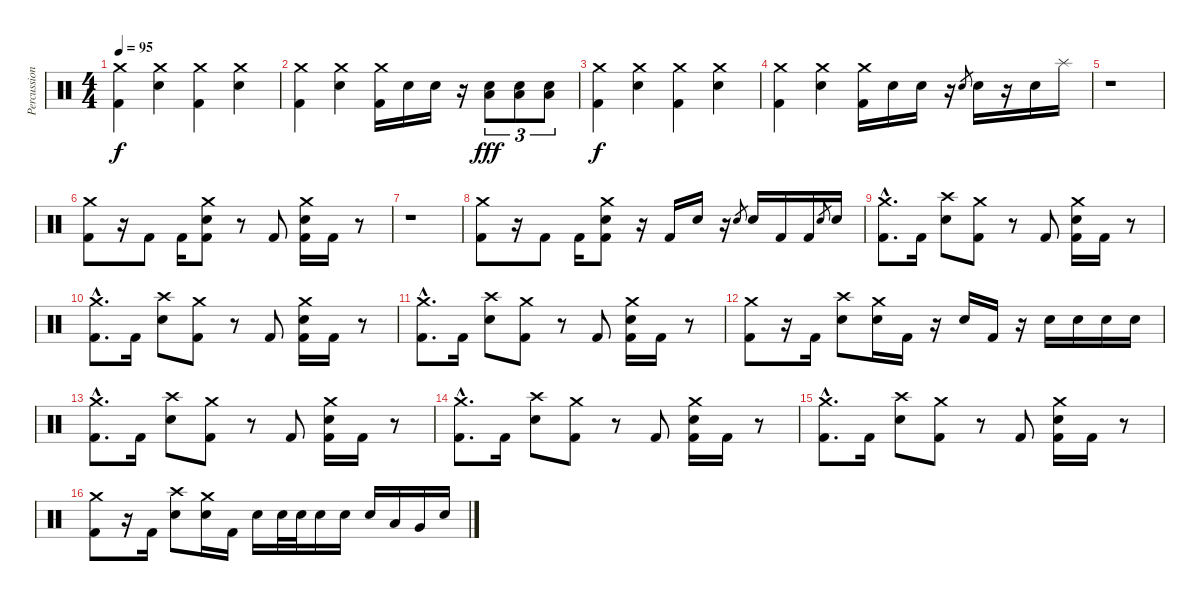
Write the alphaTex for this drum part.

\track ("Percussion" "Percussion") {instrument percussion}
\staff {score}
\articulation defaults
\ts (4 4)
\tempo 95
\clef neutral
\ks c
("Crash medium (hit)" "Kick (hit) 2").4{dy f} ("Crash medium (hit)" "Electric Snare (hit)").4 ("Crash medium (hit)" "Kick (hit) 2").4 ("Crash medium (hit)" "Electric Snare (hit)").4 |
("Crash medium (hit)" "Kick (hit) 2").4 ("Crash medium (hit)" "Electric Snare (hit)").4 ("Crash medium (hit)" "Kick (hit) 2").16 "Electric Snare (hit)".16 "Electric Snare (hit)".16 r.16 ("Low Floor Tom (hit)" "Electric Snare (hit)").8{tu (3 2) dy fff} ("Low Floor Tom (hit)" "Electric Snare (hit)").8{tu (3 2)} ("Low Floor Tom (hit)" "Electric Snare (hit)").8{tu (3 2)} |
("Crash medium (hit)" "Kick (hit) 2").4{dy f} ("Crash medium (hit)" "Electric Snare (hit)").4 ("Crash medium (hit)" "Kick (hit) 2").4 ("Crash medium (hit)" "Electric Snare (hit)").4 |
("Crash medium (hit)" "Kick (hit) 2").4 ("Crash medium (hit)" "Electric Snare (hit)").4 ("Crash medium (hit)" "Kick (hit) 2").16 "Electric Snare (hit)".16 "Electric Snare (hit)".16 r.16 "Electric Snare (hit)".8{gr} "Electric Snare (hit)".16 r.16 "Electric Snare (hit)".16 "Splash (hit)".16 |
r.1 |
("Crash medium (hit)" "Kick (hit) 2").8 r.16 "Kick (hit) 2".8 "Kick (hit) 2".16 ("Crash medium (hit)" "Electric Snare (hit)" "Kick (hit) 2").8 r.8 "Kick (hit) 2".8 ("Crash medium (hit)" "Electric Snare (hit)" "Kick (hit) 2").16 "Kick (hit) 2".16 r.8 |
r.1 |
("Crash medium (hit)" "Kick (hit) 2").8 r.16 "Kick (hit) 2".8 "Kick (hit) 2".16 ("Crash medium (hit)" "Electric Snare (hit)" "Kick (hit) 2").8 r.16 "Kick (hit) 2".16 "Electric Snare (hit)".16 r.16 "Electric Snare (hit)".8{gr} "Electric Snare (hit)".16 "Kick (hit) 2".16 "Kick (hit) 2".16 "Electric Snare (hit)".8{gr} "Electric Snare (hit)".16 |
("Crash medium (hit)"{hac} "Kick (hit) 2"{hac}).8{d} "Kick (hit) 2".16 ("Crash high (hit)" "Electric Snare (hit)").8 ("Crash medium (hit)" "Kick (hit) 2").8 r.8 "Kick (hit) 2".8 ("Crash medium (hit)" "Electric Snare (hit)" "Kick (hit) 2").16 "Kick (hit) 2".16 r.8 |
("Crash medium (hit)"{hac} "Kick (hit) 2"{hac}).8{d} "Kick (hit) 2".16 ("Crash high (hit)" "Electric Snare (hit)").8 ("Crash medium (hit)" "Kick (hit) 2").8 r.8 "Kick (hit) 2".8 ("Crash medium (hit)" "Electric Snare (hit)" "Kick (hit) 2").16 "Kick (hit) 2".16 r.8 |
("Crash medium (hit)"{hac} "Kick (hit) 2"{hac}).8{d} "Kick (hit) 2".16 ("Crash high (hit)" "Electric Snare (hit)").8 ("Crash medium (hit)" "Kick (hit) 2").8 r.8 "Kick (hit) 2".8 ("Crash medium (hit)" "Electric Snare (hit)" "Kick (hit) 2").16 "Kick (hit) 2".16 r.8 |
("Crash medium (hit)" "Kick (hit) 2").8 r.16 "Kick (hit) 2".16 ("Crash high (hit)" "Electric Snare (hit)").8 ("Crash medium (hit)" "Electric Snare (hit)").16 "Kick (hit) 2".16 r.16 "Electric Snare (hit)".16 "Kick (hit) 2".16 r.16 "Electric Snare (hit)".16 "Electric Snare (hit)".16 "Electric Snare (hit)".16 "Electric Snare (hit)".16 |
("Crash medium (hit)"{hac} "Kick (hit) 2"{hac}).8{d} "Kick (hit) 2".16 ("Crash high (hit)" "Electric Snare (hit)").8 ("Crash medium (hit)" "Kick (hit) 2").8 r.8 "Kick (hit) 2".8 ("Crash medium (hit)" "Electric Snare (hit)" "Kick (hit) 2").16 "Kick (hit) 2".16 r.8 |
("Crash medium (hit)"{hac} "Kick (hit) 2"{hac}).8{d} "Kick (hit) 2".16 ("Crash high (hit)" "Electric Snare (hit)").8 ("Crash medium (hit)" "Kick (hit) 2").8 r.8 "Kick (hit) 2".8 ("Crash medium (hit)" "Electric Snare (hit)" "Kick (hit) 2").16 "Kick (hit) 2".16 r.8 |
("Crash medium (hit)"{hac} "Kick (hit) 2"{hac}).8{d} "Kick (hit) 2".16 ("Crash high (hit)" "Electric Snare (hit)").8 ("Crash medium (hit)" "Kick (hit) 2").8 r.8 "Kick (hit) 2".8 ("Crash medium (hit)" "Electric Snare (hit)" "Kick (hit) 2").16 "Kick (hit) 2".16 r.8 |
("Crash medium (hit)" "Kick (hit) 2").8 r.16 "Kick (hit) 2".16 ("Crash high (hit)" "Electric Snare (hit)").8 ("Crash medium (hit)" "Electric Snare (hit)").16 "Kick (hit) 2".16 "Electric Snare (hit)".16 "Electric Snare (hit)".32 "Electric Snare (hit)".32 "Electric Snare (hit)".16 "Electric Snare (hit)".16 "Electric Snare (hit)".16 "Low Tom (hit)".16 "Very Low Tom (hit)".16 "Electric Snare (hit)".16
